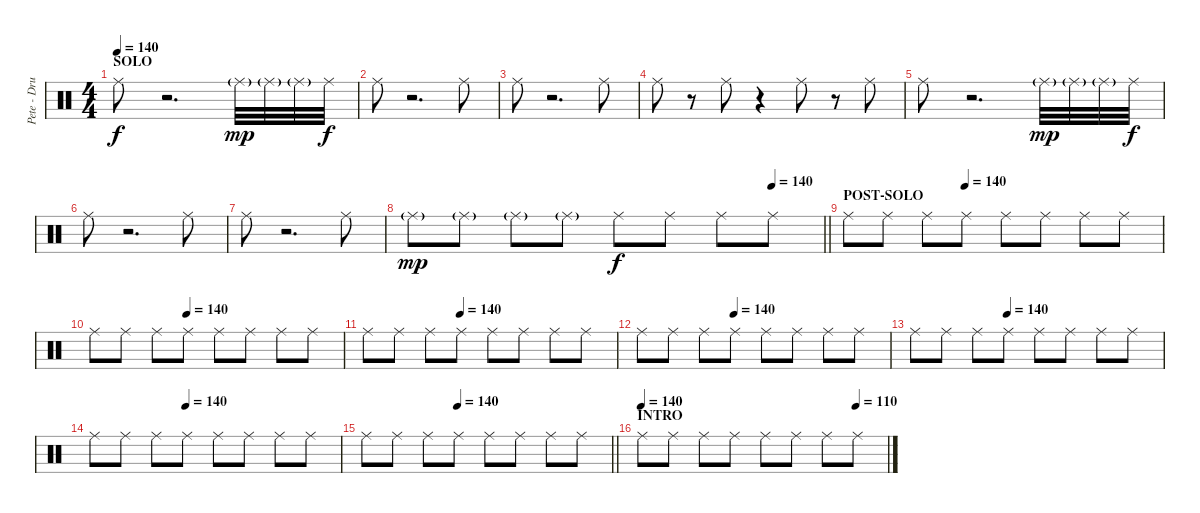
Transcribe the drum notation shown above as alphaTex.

\track ("Pete - Drums" "Pete - Dru") {instrument percussion}
\staff {score}
\articulation defaults
\ts (4 4)
\section ("" "SOLO")
\tempo 140
\clef neutral
\ks c "Ride (middle)".8{dy f}
r.2{d} "Ride (middle)"{g}.32{dy mp} "Ride (middle)"{g}.32 "Ride (middle)"{g}.32 "Ride (middle)".32{dy f} |
"Ride (middle)".8 r.2{d} "Ride (middle)".8 |
"Ride (middle)".8 r.2{d} "Ride (middle)".8 |
"Ride (middle)".8 r.8 "Ride (middle)".8 r.4 "Ride (middle)".8 r.8 "Ride (middle)".8 |
"Ride (middle)".8 r.2{d} "Ride (middle)"{g}.32{dy mp} "Ride (middle)"{g}.32 "Ride (middle)"{g}.32 "Ride (middle)".32{dy f} |
"Ride (middle)".8 r.2{d} "Ride (middle)".8 |
"Ride (middle)".8 r.2{d} "Ride (middle)".8 |
\tempo (140 0.875)
\barLineRight lightlight "Ride (middle)"{g}.8{dy mp} "Ride (middle)"{g}.8 "Ride (middle)"{g}.8 "Ride (middle)"{g}.8 "Ride (middle)".8{dy f} "Ride (middle)".8 "Ride (middle)".8 "Ride (middle)".8
|
\section ("" "POST-SOLO")
\tempo (140 0.375)
"Ride (middle)".8 "Ride (middle)".8 "Ride (middle)".8 "Ride (middle)".8 "Ride (middle)".8 "Ride (middle)".8 "Ride (middle)".8 "Ride (middle)".8 |
\tempo (140 0.375)
"Ride (middle)".8 "Ride (middle)".8 "Ride (middle)".8 "Ride (middle)".8 "Ride (middle)".8 "Ride (middle)".8 "Ride (middle)".8 "Ride (middle)".8 |
\tempo (140 0.375)
"Ride (middle)".8 "Ride (middle)".8 "Ride (middle)".8 "Ride (middle)".8 "Ride (middle)".8 "Ride (middle)".8 "Ride (middle)".8 "Ride (middle)".8 |
\tempo (140 0.375)
"Ride (middle)".8 "Ride (middle)".8 "Ride (middle)".8 "Ride (middle)".8 "Ride (middle)".8 "Ride (middle)".8 "Ride (middle)".8 "Ride (middle)".8 |
\tempo (140 0.375)
"Ride (middle)".8 "Ride (middle)".8 "Ride (middle)".8 "Ride (middle)".8 "Ride (middle)".8 "Ride (middle)".8 "Ride (middle)".8 "Ride (middle)".8 |
\tempo (140 0.375)
"Ride (middle)".8 "Ride (middle)".8 "Ride (middle)".8 "Ride (middle)".8 "Ride (middle)".8 "Ride (middle)".8 "Ride (middle)".8 "Ride (middle)".8 |
\tempo (140 0.375)
\barLineRight lightlight "Ride (middle)".8 "Ride (middle)".8 "Ride (middle)".8 "Ride (middle)".8 "Ride (middle)".8 "Ride (middle)".8 "Ride (middle)".8 "Ride (middle)".8
|
\section ("" "INTRO")
\tempo 140
\tempo (110 0.875)
"Ride (middle)".8 "Ride (middle)".8 "Ride (middle)".8 "Ride (middle)".8 "Ride (middle)".8 "Ride (middle)".8 "Ride (middle)".8 "Ride (middle)".8
